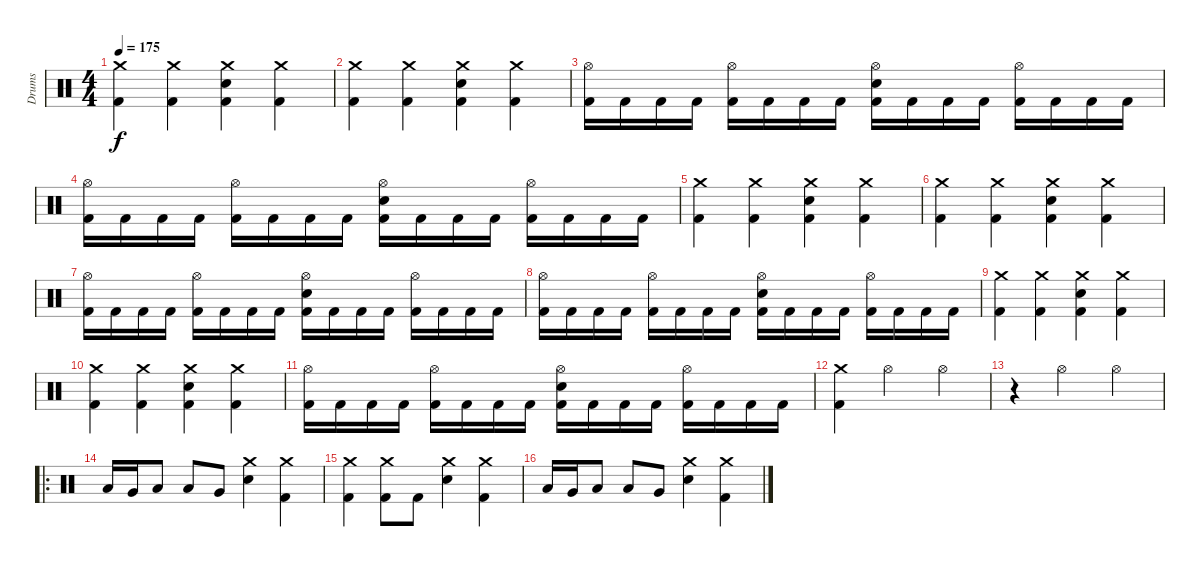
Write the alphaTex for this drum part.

\track ("Drums" "Drums") {instrument percussion}
\staff {score}
\articulation defaults
\ts (4 4)
\tempo 175
\clef neutral
\ks c
("Crash medium (hit)" "Kick (hit) 2").4{dy f} ("Crash medium (hit)" "Kick (hit) 2").4 ("Crash medium (hit)" "Snare (hit) 2" "Kick (hit) 2").4 ("Crash medium (hit)" "Kick (hit) 2").4 |
("Crash medium (hit)" "Kick (hit) 2").4 ("Crash medium (hit)" "Kick (hit) 2").4 ("Crash medium (hit)" "Snare (hit) 2" "Kick (hit) 2").4 ("Crash medium (hit)" "Kick (hit) 2").4 |
("Hi-Hat (open)" "Kick (hit) 2").16 "Kick (hit) 2".16 "Kick (hit) 2".16 "Kick (hit) 2".16 ("Hi-Hat (open)" "Kick (hit) 2").16 "Kick (hit) 2".16 "Kick (hit) 2".16 "Kick (hit) 2".16 ("Hi-Hat (open)" "Snare (hit) 2" "Kick (hit) 2").16 "Kick (hit) 2".16 "Kick (hit) 2".16 "Kick (hit) 2".16 ("Hi-Hat (open)" "Kick (hit) 2").16 "Kick (hit) 2".16 "Kick (hit) 2".16 "Kick (hit) 2".16 |
("Hi-Hat (open)" "Kick (hit) 2").16 "Kick (hit) 2".16 "Kick (hit) 2".16 "Kick (hit) 2".16 ("Hi-Hat (open)" "Kick (hit) 2").16 "Kick (hit) 2".16 "Kick (hit) 2".16 "Kick (hit) 2".16 ("Hi-Hat (open)" "Snare (hit) 2" "Kick (hit) 2").16 "Kick (hit) 2".16 "Kick (hit) 2".16 "Kick (hit) 2".16 ("Hi-Hat (open)" "Kick (hit) 2").16 "Kick (hit) 2".16 "Kick (hit) 2".16 "Kick (hit) 2".16 |
("Crash medium (hit)" "Kick (hit) 2").4 ("Crash medium (hit)" "Kick (hit) 2").4 ("Crash medium (hit)" "Snare (hit) 2" "Kick (hit) 2").4 ("Crash medium (hit)" "Kick (hit) 2").4 |
("Crash medium (hit)" "Kick (hit) 2").4 ("Crash medium (hit)" "Kick (hit) 2").4 ("Crash medium (hit)" "Snare (hit) 2" "Kick (hit) 2").4 ("Crash medium (hit)" "Kick (hit) 2").4 |
("Hi-Hat (open)" "Kick (hit) 2").16 "Kick (hit) 2".16 "Kick (hit) 2".16 "Kick (hit) 2".16 ("Hi-Hat (open)" "Kick (hit) 2").16 "Kick (hit) 2".16 "Kick (hit) 2".16 "Kick (hit) 2".16 ("Hi-Hat (open)" "Snare (hit) 2" "Kick (hit) 2").16 "Kick (hit) 2".16 "Kick (hit) 2".16 "Kick (hit) 2".16 ("Hi-Hat (open)" "Kick (hit) 2").16 "Kick (hit) 2".16 "Kick (hit) 2".16 "Kick (hit) 2".16 |
("Hi-Hat (open)" "Kick (hit) 2").16 "Kick (hit) 2".16 "Kick (hit) 2".16 "Kick (hit) 2".16 ("Hi-Hat (open)" "Kick (hit) 2").16 "Kick (hit) 2".16 "Kick (hit) 2".16 "Kick (hit) 2".16 ("Hi-Hat (open)" "Snare (hit) 2" "Kick (hit) 2").16 "Kick (hit) 2".16 "Kick (hit) 2".16 "Kick (hit) 2".16 ("Hi-Hat (open)" "Kick (hit) 2").16 "Kick (hit) 2".16 "Kick (hit) 2".16 "Kick (hit) 2".16 |
("Crash medium (hit)" "Kick (hit) 2").4 ("Crash medium (hit)" "Kick (hit) 2").4 ("Crash medium (hit)" "Snare (hit) 2" "Kick (hit) 2").4 ("Crash medium (hit)" "Kick (hit) 2").4 |
("Crash medium (hit)" "Kick (hit) 2").4 ("Crash medium (hit)" "Kick (hit) 2").4 ("Crash medium (hit)" "Snare (hit) 2" "Kick (hit) 2").4 ("Crash medium (hit)" "Kick (hit) 2").4 |
("Hi-Hat (open)" "Kick (hit) 2").16 "Kick (hit) 2".16 "Kick (hit) 2".16 "Kick (hit) 2".16 ("Hi-Hat (open)" "Kick (hit) 2").16 "Kick (hit) 2".16 "Kick (hit) 2".16 "Kick (hit) 2".16 ("Hi-Hat (open)" "Snare (hit) 2" "Kick (hit) 2").16 "Kick (hit) 2".16 "Kick (hit) 2".16 "Kick (hit) 2".16 ("Hi-Hat (open)" "Kick (hit) 2").16 "Kick (hit) 2".16 "Kick (hit) 2".16 "Kick (hit) 2".16 |
("Crash medium (hit)" "Kick (hit) 2").4 "Hi-Hat (open)".2 "Hi-Hat (open)".4 |
r.4 "Hi-Hat (open)".2 "Hi-Hat (open)".4 |
\ro "Low Tom (hit)".16 "Very Low Tom (hit)".16 "Low Floor Tom (hit)".8 "Low Tom (hit)".8 "Very Low Tom (hit)".8
("Crash medium (hit)" "Snare (hit) 2").4 ("Crash medium (hit)" "Kick (hit) 2").4 |
("Crash medium (hit)" "Kick (hit) 2").4 ("Crash medium (hit)" "Kick (hit) 2").8 "Kick (hit) 2".8 ("Crash medium (hit)" "Snare (hit) 2").4 ("Crash medium (hit)" "Kick (hit) 2").4 |
"Low Tom (hit)".16 "Very Low Tom (hit)".16 "Low Floor Tom (hit)".8 "Low Tom (hit)".8 "Very Low Tom (hit)".8 ("Crash medium (hit)" "Snare (hit) 2").4 ("Crash medium (hit)" "Kick (hit) 2").4
